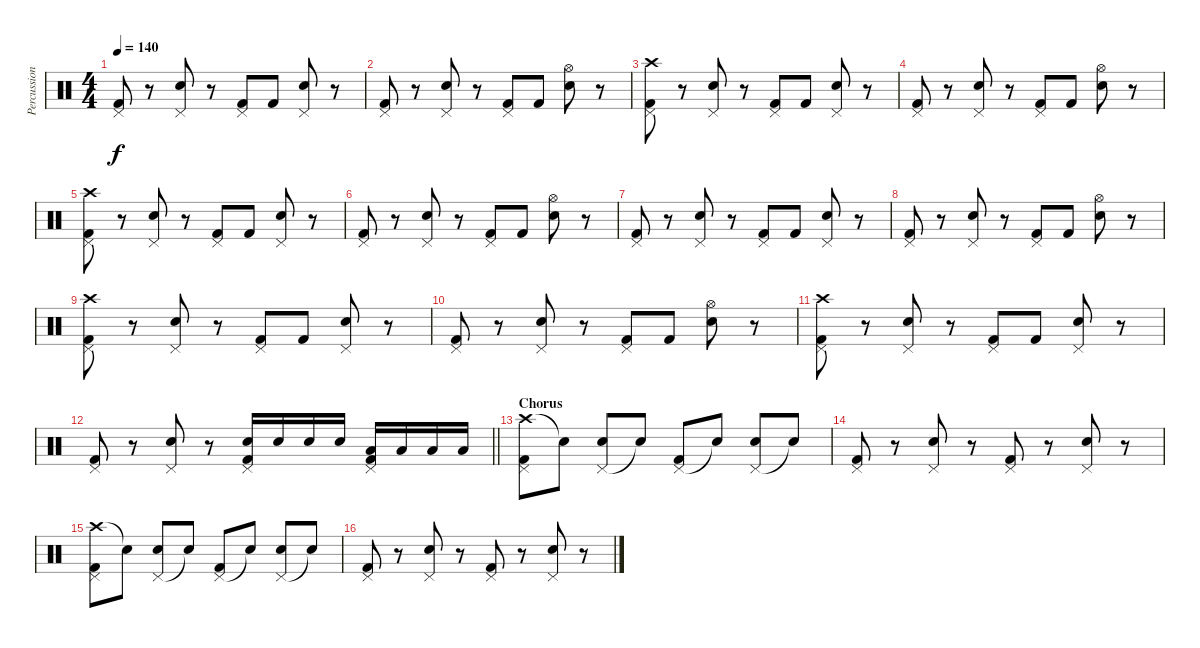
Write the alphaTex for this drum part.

\track ("Percussion" "Percussion") {instrument percussion}
\staff {score}
\articulation defaults
\ts (4 4)
\tempo 140
\clef neutral
\ks c
("Pedal Hi-Hat (hit)" "Kick (hit) 2").8{dy f} r.8 ("Pedal Hi-Hat (hit)" "Electric Snare (hit)").8 r.8 ("Pedal Hi-Hat (hit)" "Kick (hit) 2").8 "Kick (hit) 2".8 ("Pedal Hi-Hat (hit)" "Electric Snare (hit)").8 r.8 |
("Pedal Hi-Hat (hit)" "Kick (hit) 2").8 r.8 ("Pedal Hi-Hat (hit)" "Electric Snare (hit)").8 r.8 ("Pedal Hi-Hat (hit)" "Kick (hit) 2").8 "Kick (hit) 2".8 ("Hi-Hat (open)" "Electric Snare (hit)").8 r.8 |
("Crash high (hit)" "Pedal Hi-Hat (hit)" "Kick (hit) 2").8 r.8 ("Pedal Hi-Hat (hit)" "Electric Snare (hit)").8 r.8 ("Pedal Hi-Hat (hit)" "Kick (hit) 2").8 "Kick (hit) 2".8 ("Pedal Hi-Hat (hit)" "Electric Snare (hit)").8 r.8 |
("Pedal Hi-Hat (hit)" "Kick (hit) 2").8 r.8 ("Pedal Hi-Hat (hit)" "Electric Snare (hit)").8 r.8 ("Pedal Hi-Hat (hit)" "Kick (hit) 2").8 "Kick (hit) 2".8 ("Hi-Hat (open)" "Electric Snare (hit)").8 r.8 |
("Crash high (hit)" "Pedal Hi-Hat (hit)" "Kick (hit) 2").8 r.8 ("Pedal Hi-Hat (hit)" "Electric Snare (hit)").8 r.8 ("Pedal Hi-Hat (hit)" "Kick (hit) 2").8 "Kick (hit) 2".8 ("Pedal Hi-Hat (hit)" "Electric Snare (hit)").8 r.8 |
("Pedal Hi-Hat (hit)" "Kick (hit) 2").8 r.8 ("Pedal Hi-Hat (hit)" "Electric Snare (hit)").8 r.8 ("Pedal Hi-Hat (hit)" "Kick (hit) 2").8 "Kick (hit) 2".8 ("Hi-Hat (open)" "Electric Snare (hit)").8 r.8 |
("Pedal Hi-Hat (hit)" "Kick (hit) 2").8 r.8 ("Pedal Hi-Hat (hit)" "Electric Snare (hit)").8 r.8 ("Pedal Hi-Hat (hit)" "Kick (hit) 2").8 "Kick (hit) 2".8 ("Pedal Hi-Hat (hit)" "Electric Snare (hit)").8 r.8 |
("Pedal Hi-Hat (hit)" "Kick (hit) 2").8 r.8 ("Pedal Hi-Hat (hit)" "Electric Snare (hit)").8 r.8 ("Pedal Hi-Hat (hit)" "Kick (hit) 2").8 "Kick (hit) 2".8 ("Hi-Hat (open)" "Electric Snare (hit)").8 r.8 |
("Crash high (hit)" "Pedal Hi-Hat (hit)" "Kick (hit) 2").8 r.8 ("Pedal Hi-Hat (hit)" "Electric Snare (hit)").8 r.8 ("Pedal Hi-Hat (hit)" "Kick (hit) 2").8 "Kick (hit) 2".8 ("Pedal Hi-Hat (hit)" "Electric Snare (hit)").8 r.8 |
("Pedal Hi-Hat (hit)" "Kick (hit) 2").8 r.8 ("Pedal Hi-Hat (hit)" "Electric Snare (hit)").8 r.8 ("Pedal Hi-Hat (hit)" "Kick (hit) 2").8 "Kick (hit) 2".8 ("Hi-Hat (open)" "Electric Snare (hit)").8 r.8 |
("Crash high (hit)" "Pedal Hi-Hat (hit)" "Kick (hit) 2").8 r.8 ("Pedal Hi-Hat (hit)" "Electric Snare (hit)").8 r.8 ("Pedal Hi-Hat (hit)" "Kick (hit) 2").8 "Kick (hit) 2".8 ("Pedal Hi-Hat (hit)" "Electric Snare (hit)").8 r.8 |
\barLineRight lightlight
("Pedal Hi-Hat (hit)" "Kick (hit) 2").8 r.8 ("Pedal Hi-Hat (hit)" "Electric Snare (hit)").8 r.8 ("Pedal Hi-Hat (hit)" "Electric Snare (hit)" "Kick (hit) 2").16 "Electric Snare (hit)".16 "Electric Snare (hit)".16 "Electric Snare (hit)".16 ("Pedal Hi-Hat (hit)" "Low Tom (hit)" "Kick (hit) 2").16 "Low Tom (hit)".16 "Low Tom (hit)".16 "Low Tom (hit)".16 |
\section ("" "Chorus")
("Crash high (hit)" "Pedal Hi-Hat (hit)" "Kick (hit) 2").8 "Snare (hit)"{t}.8 ("Pedal Hi-Hat (hit)" "Electric Snare (hit)").8 "Snare (hit)"{t}.8 ("Pedal Hi-Hat (hit)" "Kick (hit) 2").8 "Snare (hit)"{t}.8 ("Pedal Hi-Hat (hit)" "Electric Snare (hit)").8 "Snare (hit)"{t}.8 |
("Pedal Hi-Hat (hit)" "Kick (hit) 2").8 r.8 ("Pedal Hi-Hat (hit)" "Electric Snare (hit)").8 r.8 ("Pedal Hi-Hat (hit)" "Kick (hit) 2").8 r.8 ("Pedal Hi-Hat (hit)" "Electric Snare (hit)").8 r.8 |
("Crash high (hit)" "Pedal Hi-Hat (hit)" "Kick (hit) 2").8 "Snare (hit)"{t}.8 ("Pedal Hi-Hat (hit)" "Electric Snare (hit)").8 "Snare (hit)"{t}.8 ("Pedal Hi-Hat (hit)" "Kick (hit) 2").8 "Snare (hit)"{t}.8 ("Pedal Hi-Hat (hit)" "Electric Snare (hit)").8 "Snare (hit)"{t}.8 |
("Pedal Hi-Hat (hit)" "Kick (hit) 2").8 r.8 ("Pedal Hi-Hat (hit)" "Electric Snare (hit)").8 r.8 ("Pedal Hi-Hat (hit)" "Kick (hit) 2").8 r.8 ("Pedal Hi-Hat (hit)" "Electric Snare (hit)").8 r.8
